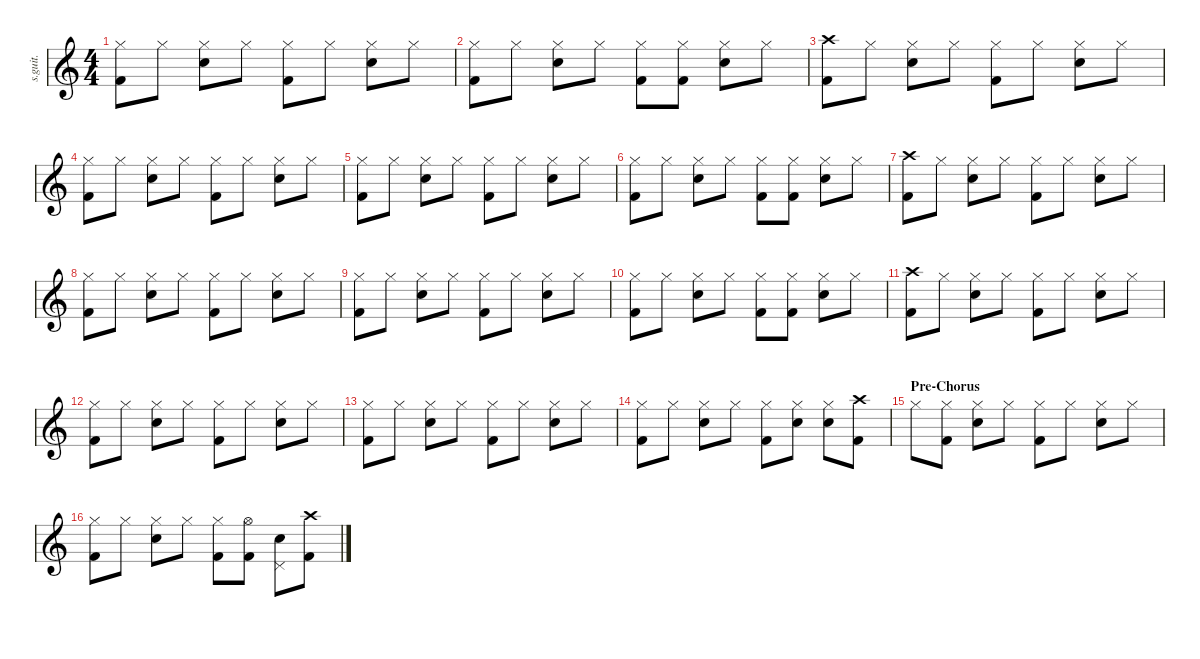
\defaultSystemsLayout 4
\hideDynamics
\bracketExtendMode nobrackets
\track ("Nick Menza" "s.guit.") {instrument percussion}
\staff {score}
\articulation defaults
\ts (4 4)
\tempo (140 hide)
\clef g2
\ks c
("Hi-Hat (closed)" "Kick (hit) 2").8{lyrics (0 "") lyrics (1 "") lyrics (2 "") lyrics (3 "") lyrics (4 "") dy f} "Hi-Hat (closed)".8{lyrics (0 "") lyrics (1 "") lyrics (2 "") lyrics (3 "") lyrics (4 "")} ("Hi-Hat (closed)" "Snare (hit) 2").8{lyrics (0 "") lyrics (1 "") lyrics (2 "") lyrics (3 "") lyrics (4 "")} "Hi-Hat (closed)".8{lyrics (0 "") lyrics (1 "") lyrics (2 "") lyrics (3 "") lyrics (4 "")} ("Hi-Hat (closed)" "Kick (hit) 2").8{lyrics (0 "") lyrics (1 "") lyrics (2 "") lyrics (3 "") lyrics (4 "")} "Hi-Hat (closed)".8{lyrics (0 "") lyrics (1 "") lyrics (2 "") lyrics (3 "") lyrics (4 "")} ("Hi-Hat (closed)" "Snare (hit) 2").8{lyrics (0 "") lyrics (1 "") lyrics (2 "") lyrics (3 "") lyrics (4 "")} "Hi-Hat (closed)".8{lyrics (0 "") lyrics (1 "") lyrics (2 "") lyrics (3 "") lyrics (4 "")} |
("Hi-Hat (closed)" "Kick (hit) 2").8{lyrics (0 "") lyrics (1 "") lyrics (2 "") lyrics (3 "") lyrics (4 "")} "Hi-Hat (closed)".8{lyrics (0 "") lyrics (1 "") lyrics (2 "") lyrics (3 "") lyrics (4 "")} ("Hi-Hat (closed)" "Snare (hit) 2").8{lyrics (0 "") lyrics (1 "") lyrics (2 "") lyrics (3 "") lyrics (4 "")} "Hi-Hat (closed)".8{lyrics (0 "") lyrics (1 "") lyrics (2 "") lyrics (3 "") lyrics (4 "")} ("Hi-Hat (closed)" "Kick (hit) 2").8{lyrics (0 "") lyrics (1 "") lyrics (2 "") lyrics (3 "") lyrics (4 "")} ("Hi-Hat (closed)" "Kick (hit) 2").8{lyrics (0 "") lyrics (1 "") lyrics (2 "") lyrics (3 "") lyrics (4 "")} ("Hi-Hat (closed)" "Snare (hit) 2").8{lyrics (0 "") lyrics (1 "") lyrics (2 "") lyrics (3 "") lyrics (4 "")} "Hi-Hat (closed)".8{lyrics (0 "") lyrics (1 "") lyrics (2 "") lyrics (3 "") lyrics (4 "")} |
("Crash high (hit)" "Kick (hit) 2").8{lyrics (0 "") lyrics (1 "") lyrics (2 "") lyrics (3 "") lyrics (4 "")} "Hi-Hat (closed)".8{lyrics (0 "") lyrics (1 "") lyrics (2 "") lyrics (3 "") lyrics (4 "")} ("Hi-Hat (closed)" "Snare (hit) 2").8{lyrics (0 "") lyrics (1 "") lyrics (2 "") lyrics (3 "") lyrics (4 "")} "Hi-Hat (closed)".8{lyrics (0 "") lyrics (1 "") lyrics (2 "") lyrics (3 "") lyrics (4 "")} ("Hi-Hat (closed)" "Kick (hit) 2").8{lyrics (0 "") lyrics (1 "") lyrics (2 "") lyrics (3 "") lyrics (4 "")} "Hi-Hat (closed)".8{lyrics (0 "") lyrics (1 "") lyrics (2 "") lyrics (3 "") lyrics (4 "")} ("Hi-Hat (closed)" "Snare (hit) 2").8{lyrics (0 "") lyrics (1 "") lyrics (2 "") lyrics (3 "") lyrics (4 "")} "Hi-Hat (closed)".8{lyrics (0 "") lyrics (1 "") lyrics (2 "") lyrics (3 "") lyrics (4 "")} |
("Hi-Hat (closed)" "Kick (hit) 2").8{lyrics (0 "") lyrics (1 "") lyrics (2 "") lyrics (3 "") lyrics (4 "")} "Hi-Hat (closed)".8{lyrics (0 "") lyrics (1 "") lyrics (2 "") lyrics (3 "") lyrics (4 "")} ("Hi-Hat (closed)" "Snare (hit) 2").8{lyrics (0 "") lyrics (1 "") lyrics (2 "") lyrics (3 "") lyrics (4 "")} "Hi-Hat (closed)".8{lyrics (0 "") lyrics (1 "") lyrics (2 "") lyrics (3 "") lyrics (4 "")} ("Hi-Hat (closed)" "Kick (hit) 2").8{lyrics (0 "") lyrics (1 "") lyrics (2 "") lyrics (3 "") lyrics (4 "")} "Hi-Hat (closed)".8{lyrics (0 "") lyrics (1 "") lyrics (2 "") lyrics (3 "") lyrics (4 "")} ("Hi-Hat (closed)" "Snare (hit) 2").8{lyrics (0 "") lyrics (1 "") lyrics (2 "") lyrics (3 "") lyrics (4 "")} "Hi-Hat (closed)".8{lyrics (0 "") lyrics (1 "") lyrics (2 "") lyrics (3 "") lyrics (4 "")} |
("Hi-Hat (closed)" "Kick (hit) 2").8{lyrics (0 "") lyrics (1 "") lyrics (2 "") lyrics (3 "") lyrics (4 "")} "Hi-Hat (closed)".8{lyrics (0 "") lyrics (1 "") lyrics (2 "") lyrics (3 "") lyrics (4 "")} ("Hi-Hat (closed)" "Snare (hit) 2").8{lyrics (0 "") lyrics (1 "") lyrics (2 "") lyrics (3 "") lyrics (4 "")} "Hi-Hat (closed)".8{lyrics (0 "") lyrics (1 "") lyrics (2 "") lyrics (3 "") lyrics (4 "")} ("Hi-Hat (closed)" "Kick (hit) 2").8{lyrics (0 "") lyrics (1 "") lyrics (2 "") lyrics (3 "") lyrics (4 "")} "Hi-Hat (closed)".8{lyrics (0 "") lyrics (1 "") lyrics (2 "") lyrics (3 "") lyrics (4 "")} ("Hi-Hat (closed)" "Snare (hit) 2").8{lyrics (0 "") lyrics (1 "") lyrics (2 "") lyrics (3 "") lyrics (4 "")} "Hi-Hat (closed)".8{lyrics (0 "") lyrics (1 "") lyrics (2 "") lyrics (3 "") lyrics (4 "")} |
("Hi-Hat (closed)" "Kick (hit) 2").8{lyrics (0 "") lyrics (1 "") lyrics (2 "") lyrics (3 "") lyrics (4 "")} "Hi-Hat (closed)".8{lyrics (0 "") lyrics (1 "") lyrics (2 "") lyrics (3 "") lyrics (4 "")} ("Hi-Hat (closed)" "Snare (hit) 2").8{lyrics (0 "") lyrics (1 "") lyrics (2 "") lyrics (3 "") lyrics (4 "")} "Hi-Hat (closed)".8{lyrics (0 "") lyrics (1 "") lyrics (2 "") lyrics (3 "") lyrics (4 "")} ("Hi-Hat (closed)" "Kick (hit) 2").8{lyrics (0 "") lyrics (1 "") lyrics (2 "") lyrics (3 "") lyrics (4 "")} ("Hi-Hat (closed)" "Kick (hit) 2").8{lyrics (0 "") lyrics (1 "") lyrics (2 "") lyrics (3 "") lyrics (4 "")} ("Hi-Hat (closed)" "Snare (hit) 2").8{lyrics (0 "") lyrics (1 "") lyrics (2 "") lyrics (3 "") lyrics (4 "")} "Hi-Hat (closed)".8{lyrics (0 "") lyrics (1 "") lyrics (2 "") lyrics (3 "") lyrics (4 "")} |
("Crash high (hit)" "Kick (hit) 2").8{lyrics (0 "") lyrics (1 "") lyrics (2 "") lyrics (3 "") lyrics (4 "")} "Hi-Hat (closed)".8{lyrics (0 "") lyrics (1 "") lyrics (2 "") lyrics (3 "") lyrics (4 "")} ("Hi-Hat (closed)" "Snare (hit) 2").8{lyrics (0 "") lyrics (1 "") lyrics (2 "") lyrics (3 "") lyrics (4 "")} "Hi-Hat (closed)".8{lyrics (0 "") lyrics (1 "") lyrics (2 "") lyrics (3 "") lyrics (4 "")} ("Hi-Hat (closed)" "Kick (hit) 2").8{lyrics (0 "") lyrics (1 "") lyrics (2 "") lyrics (3 "") lyrics (4 "")} "Hi-Hat (closed)".8{lyrics (0 "") lyrics (1 "") lyrics (2 "") lyrics (3 "") lyrics (4 "")} ("Hi-Hat (closed)" "Snare (hit) 2").8{lyrics (0 "") lyrics (1 "") lyrics (2 "") lyrics (3 "") lyrics (4 "")} "Hi-Hat (closed)".8{lyrics (0 "") lyrics (1 "") lyrics (2 "") lyrics (3 "") lyrics (4 "")} |
("Hi-Hat (closed)" "Kick (hit) 2").8{lyrics (0 "") lyrics (1 "") lyrics (2 "") lyrics (3 "") lyrics (4 "")} "Hi-Hat (closed)".8{lyrics (0 "") lyrics (1 "") lyrics (2 "") lyrics (3 "") lyrics (4 "")} ("Hi-Hat (closed)" "Snare (hit) 2").8{lyrics (0 "") lyrics (1 "") lyrics (2 "") lyrics (3 "") lyrics (4 "")} "Hi-Hat (closed)".8{lyrics (0 "") lyrics (1 "") lyrics (2 "") lyrics (3 "") lyrics (4 "")} ("Hi-Hat (closed)" "Kick (hit) 2").8{lyrics (0 "") lyrics (1 "") lyrics (2 "") lyrics (3 "") lyrics (4 "")} "Hi-Hat (closed)".8{lyrics (0 "") lyrics (1 "") lyrics (2 "") lyrics (3 "") lyrics (4 "")} ("Hi-Hat (closed)" "Snare (hit) 2").8{lyrics (0 "") lyrics (1 "") lyrics (2 "") lyrics (3 "") lyrics (4 "")} "Hi-Hat (closed)".8{lyrics (0 "") lyrics (1 "") lyrics (2 "") lyrics (3 "") lyrics (4 "")} |
("Hi-Hat (closed)" "Kick (hit) 2").8{lyrics (0 "") lyrics (1 "") lyrics (2 "") lyrics (3 "") lyrics (4 "")} "Hi-Hat (closed)".8{lyrics (0 "") lyrics (1 "") lyrics (2 "") lyrics (3 "") lyrics (4 "")} ("Hi-Hat (closed)" "Snare (hit) 2").8{lyrics (0 "") lyrics (1 "") lyrics (2 "") lyrics (3 "") lyrics (4 "")} "Hi-Hat (closed)".8{lyrics (0 "") lyrics (1 "") lyrics (2 "") lyrics (3 "") lyrics (4 "")} ("Hi-Hat (closed)" "Kick (hit) 2").8{lyrics (0 "") lyrics (1 "") lyrics (2 "") lyrics (3 "") lyrics (4 "")} "Hi-Hat (closed)".8{lyrics (0 "") lyrics (1 "") lyrics (2 "") lyrics (3 "") lyrics (4 "")} ("Hi-Hat (closed)" "Snare (hit) 2").8{lyrics (0 "") lyrics (1 "") lyrics (2 "") lyrics (3 "") lyrics (4 "")} "Hi-Hat (closed)".8{lyrics (0 "") lyrics (1 "") lyrics (2 "") lyrics (3 "") lyrics (4 "")} |
("Hi-Hat (closed)" "Kick (hit) 2").8{lyrics (0 "") lyrics (1 "") lyrics (2 "") lyrics (3 "") lyrics (4 "")} "Hi-Hat (closed)".8{lyrics (0 "") lyrics (1 "") lyrics (2 "") lyrics (3 "") lyrics (4 "")} ("Hi-Hat (closed)" "Snare (hit) 2").8{lyrics (0 "") lyrics (1 "") lyrics (2 "") lyrics (3 "") lyrics (4 "")} "Hi-Hat (closed)".8{lyrics (0 "") lyrics (1 "") lyrics (2 "") lyrics (3 "") lyrics (4 "")} ("Hi-Hat (closed)" "Kick (hit) 2").8{lyrics (0 "") lyrics (1 "") lyrics (2 "") lyrics (3 "") lyrics (4 "")} ("Hi-Hat (closed)" "Kick (hit) 2").8{lyrics (0 "") lyrics (1 "") lyrics (2 "") lyrics (3 "") lyrics (4 "")} ("Hi-Hat (closed)" "Snare (hit) 2").8{lyrics (0 "") lyrics (1 "") lyrics (2 "") lyrics (3 "") lyrics (4 "")} "Hi-Hat (closed)".8{lyrics (0 "") lyrics (1 "") lyrics (2 "") lyrics (3 "") lyrics (4 "")} |
("Crash high (hit)" "Kick (hit) 2").8{lyrics (0 "") lyrics (1 "") lyrics (2 "") lyrics (3 "") lyrics (4 "")} "Hi-Hat (closed)".8{lyrics (0 "") lyrics (1 "") lyrics (2 "") lyrics (3 "") lyrics (4 "")} ("Hi-Hat (closed)" "Snare (hit) 2").8{lyrics (0 "") lyrics (1 "") lyrics (2 "") lyrics (3 "") lyrics (4 "")} "Hi-Hat (closed)".8{lyrics (0 "") lyrics (1 "") lyrics (2 "") lyrics (3 "") lyrics (4 "")} ("Hi-Hat (closed)" "Kick (hit) 2").8{lyrics (0 "") lyrics (1 "") lyrics (2 "") lyrics (3 "") lyrics (4 "")} "Hi-Hat (closed)".8{lyrics (0 "") lyrics (1 "") lyrics (2 "") lyrics (3 "") lyrics (4 "")} ("Hi-Hat (closed)" "Snare (hit) 2").8{lyrics (0 "") lyrics (1 "") lyrics (2 "") lyrics (3 "") lyrics (4 "")} "Hi-Hat (closed)".8{lyrics (0 "") lyrics (1 "") lyrics (2 "") lyrics (3 "") lyrics (4 "")} |
("Hi-Hat (closed)" "Kick (hit) 2").8{lyrics (0 "") lyrics (1 "") lyrics (2 "") lyrics (3 "") lyrics (4 "")} "Hi-Hat (closed)".8{lyrics (0 "") lyrics (1 "") lyrics (2 "") lyrics (3 "") lyrics (4 "")} ("Hi-Hat (closed)" "Snare (hit) 2").8{lyrics (0 "") lyrics (1 "") lyrics (2 "") lyrics (3 "") lyrics (4 "")} "Hi-Hat (closed)".8{lyrics (0 "") lyrics (1 "") lyrics (2 "") lyrics (3 "") lyrics (4 "")} ("Hi-Hat (closed)" "Kick (hit) 2").8{lyrics (0 "") lyrics (1 "") lyrics (2 "") lyrics (3 "") lyrics (4 "")} "Hi-Hat (closed)".8{lyrics (0 "") lyrics (1 "") lyrics (2 "") lyrics (3 "") lyrics (4 "")} ("Hi-Hat (closed)" "Snare (hit) 2").8{lyrics (0 "") lyrics (1 "") lyrics (2 "") lyrics (3 "") lyrics (4 "")} "Hi-Hat (closed)".8{lyrics (0 "") lyrics (1 "") lyrics (2 "") lyrics (3 "") lyrics (4 "")} |
("Hi-Hat (closed)" "Kick (hit) 2").8{lyrics (0 "") lyrics (1 "") lyrics (2 "") lyrics (3 "") lyrics (4 "")} "Hi-Hat (closed)".8{lyrics (0 "") lyrics (1 "") lyrics (2 "") lyrics (3 "") lyrics (4 "")} ("Hi-Hat (closed)" "Snare (hit) 2").8{lyrics (0 "") lyrics (1 "") lyrics (2 "") lyrics (3 "") lyrics (4 "")} "Hi-Hat (closed)".8{lyrics (0 "") lyrics (1 "") lyrics (2 "") lyrics (3 "") lyrics (4 "")} ("Hi-Hat (closed)" "Kick (hit) 2").8{lyrics (0 "") lyrics (1 "") lyrics (2 "") lyrics (3 "") lyrics (4 "")} "Hi-Hat (closed)".8{lyrics (0 "") lyrics (1 "") lyrics (2 "") lyrics (3 "") lyrics (4 "")} ("Hi-Hat (closed)" "Snare (hit) 2").8{lyrics (0 "") lyrics (1 "") lyrics (2 "") lyrics (3 "") lyrics (4 "")} "Hi-Hat (closed)".8{lyrics (0 "") lyrics (1 "") lyrics (2 "") lyrics (3 "") lyrics (4 "")} |
("Hi-Hat (closed)" "Kick (hit) 2").8{lyrics (0 "") lyrics (1 "") lyrics (2 "") lyrics (3 "") lyrics (4 "")} "Hi-Hat (closed)".8{lyrics (0 "") lyrics (1 "") lyrics (2 "") lyrics (3 "") lyrics (4 "")} ("Hi-Hat (closed)" "Snare (hit) 2").8{lyrics (0 "") lyrics (1 "") lyrics (2 "") lyrics (3 "") lyrics (4 "")} "Hi-Hat (closed)".8{lyrics (0 "") lyrics (1 "") lyrics (2 "") lyrics (3 "") lyrics (4 "")} ("Hi-Hat (closed)" "Kick (hit) 2").8{lyrics (0 "") lyrics (1 "") lyrics (2 "") lyrics (3 "") lyrics (4 "")} ("Hi-Hat (closed)" "Snare (hit) 2").8{lyrics (0 "") lyrics (1 "") lyrics (2 "") lyrics (3 "") lyrics (4 "")} ("Hi-Hat (closed)" "Snare (hit) 2").8{lyrics (0 "") lyrics (1 "") lyrics (2 "") lyrics (3 "") lyrics (4 "")} ("Crash high (hit)" "Kick (hit) 2").8{lyrics (0 "") lyrics (1 "") lyrics (2 "") lyrics (3 "") lyrics (4 "")} |
\section ("" "Pre-Chorus")
"Hi-Hat (closed)".8{lyrics (0 "") lyrics (1 "") lyrics (2 "") lyrics (3 "") lyrics (4 "")} ("Hi-Hat (closed)" "Kick (hit) 2").8{lyrics (0 "") lyrics (1 "") lyrics (2 "") lyrics (3 "") lyrics (4 "")} ("Hi-Hat (closed)" "Snare (hit) 2").8{lyrics (0 "") lyrics (1 "") lyrics (2 "") lyrics (3 "") lyrics (4 "")} "Hi-Hat (closed)".8{lyrics (0 "") lyrics (1 "") lyrics (2 "") lyrics (3 "") lyrics (4 "")} ("Hi-Hat (closed)" "Kick (hit) 2").8{lyrics (0 "") lyrics (1 "") lyrics (2 "") lyrics (3 "") lyrics (4 "")} "Hi-Hat (closed)".8{lyrics (0 "") lyrics (1 "") lyrics (2 "") lyrics (3 "") lyrics (4 "")} ("Hi-Hat (closed)" "Snare (hit) 2").8{lyrics (0 "") lyrics (1 "") lyrics (2 "") lyrics (3 "") lyrics (4 "")} "Hi-Hat (closed)".8{lyrics (0 "") lyrics (1 "") lyrics (2 "") lyrics (3 "") lyrics (4 "")} |
("Hi-Hat (closed)" "Kick (hit) 2").8{lyrics (0 "") lyrics (1 "") lyrics (2 "") lyrics (3 "") lyrics (4 "")} "Hi-Hat (closed)".8{lyrics (0 "") lyrics (1 "") lyrics (2 "") lyrics (3 "") lyrics (4 "")} ("Hi-Hat (closed)" "Snare (hit) 2").8{lyrics (0 "") lyrics (1 "") lyrics (2 "") lyrics (3 "") lyrics (4 "")} "Hi-Hat (closed)".8{lyrics (0 "") lyrics (1 "") lyrics (2 "") lyrics (3 "") lyrics (4 "")} ("Hi-Hat (closed)" "Kick (hit) 2").8{lyrics (0 "") lyrics (1 "") lyrics (2 "") lyrics (3 "") lyrics (4 "")} ("Hi-Hat (open)" "Kick (hit) 2").8{lyrics (0 "") lyrics (1 "") lyrics (2 "") lyrics (3 "") lyrics (4 "")} ("Pedal Hi-Hat (hit)" "Snare (hit) 2").8{lyrics (0 "") lyrics (1 "") lyrics (2 "") lyrics (3 "") lyrics (4 "")} ("Crash high (hit)" "Kick (hit) 2").8{lyrics (0 "") lyrics (1 "") lyrics (2 "") lyrics (3 "") lyrics (4 "")}
